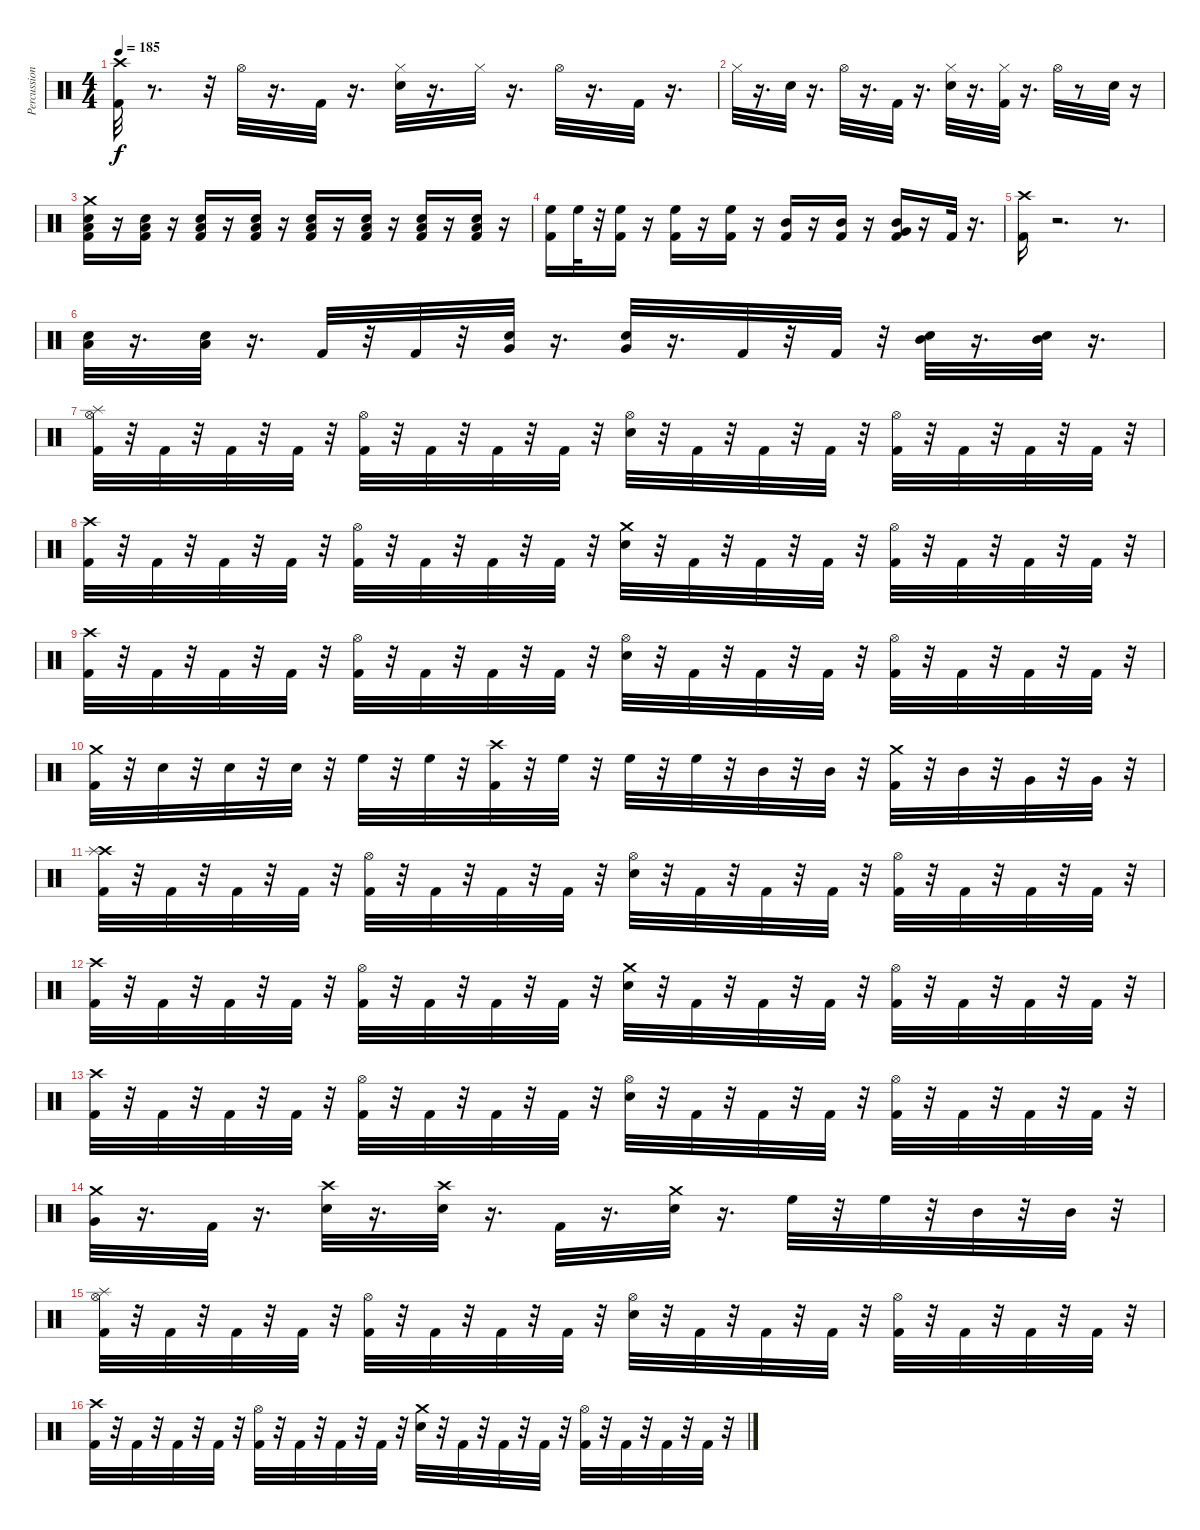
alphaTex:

\track ("Percussion" "Percussion") {instrument percussion}
\staff {score}
\articulation defaults
\ts (4 4)
\tempo 185
\clef neutral
\ks c
("Kick (hit) 2" "Crash high (hit)").32{dy f} r.8{d} r.32 "Hi-Hat (open)".32 r.16{d} "Kick (hit) 2".32 r.16{d} ("Snare (hit) 2" "Hi-Hat (closed)").32 r.16{d} "Hi-Hat (closed)".32 r.16{d} "Hi-Hat (open)".32 r.16{d} "Kick (hit) 2".32 r.16{d} |
"Hi-Hat (closed)".32 r.16{d} "Snare (hit) 2".32 r.16{d} "Hi-Hat (open)".32 r.16{d} "Kick (hit) 2".32 r.16{d} ("Snare (hit) 2" "Hi-Hat (closed)").32 r.16{d} ("Kick (hit) 2" "Hi-Hat (closed)").32 r.16{d} "Hi-Hat (open)".32 r.8 "Snare (hit) 2".32 r.16 |
("Kick (hit) 2" "Snare (hit) 2" "Low Tom (hit)" "Crash medium (hit)").16 r.16 ("Kick (hit) 2" "Snare (hit) 2" "Low Tom (hit)").16 r.16 ("Kick (hit) 2" "Snare (hit) 2" "Low Tom (hit)").16 r.16 ("Kick (hit) 2" "Snare (hit) 2" "Low Tom (hit)").16 r.16 ("Kick (hit) 2" "Snare (hit) 2" "Low Tom (hit)").16 r.16 ("Kick (hit) 2" "Snare (hit) 2" "Low Tom (hit)").16 r.16 ("Kick (hit) 2" "Snare (hit) 2" "Low Tom (hit)").16 r.16 ("Kick (hit) 2" "Snare (hit) 2" "Low Tom (hit)").16 r.16 |
("Kick (hit) 2" "High Floor Tom (hit)").16 "High Floor Tom (hit)".32 r.32 ("Kick (hit) 2" "High Floor Tom (hit)").16 r.16 ("Kick (hit) 2" "High Floor Tom (hit)").16 r.16 ("Kick (hit) 2" "High Floor Tom (hit)").16 r.16 ("Kick (hit) 2" "Mid Tom (hit)").16 r.16 ("Kick (hit) 2" "Mid Tom (hit)").16 r.16 ("Kick (hit) 2" "Very Low Tom (hit)" "Mid Tom (hit)").16 r.16 "Kick (hit) 2".32 r.16{d} |
("Kick (hit) 2" "Crash high (hit)").16 r.2{d} r.8{d} |
("Snare (hit) 2" "Low Floor Tom (hit)").32 r.16{d} ("Snare (hit) 2" "Low Floor Tom (hit)").32 r.16{d} "Kick (hit) 2".32 r.32 "Kick (hit) 2".32 r.32 ("Snare (hit) 2" "Very Low Tom (hit)").32 r.16{d} ("Snare (hit) 2" "Very Low Tom (hit)").32 r.16{d} "Kick (hit) 2".32 r.32 "Kick (hit) 2".32 r.32 ("Snare (hit) 2" "Mid Tom (hit)").32 r.16{d} ("Snare (hit) 2" "Mid Tom (hit)").32 r.16{d} |
("Kick (hit) 2" "Hi-Hat (open)" "Splash (hit)").32 r.32 "Kick (hit) 2".32 r.32 "Kick (hit) 2".32 r.32 "Kick (hit) 2".32 r.32 ("Kick (hit) 2" "Hi-Hat (open)").32 r.32 "Kick (hit) 2".32 r.32 "Kick (hit) 2".32 r.32 "Kick (hit) 2".32 r.32 ("Snare (hit) 2" "Hi-Hat (open)").32 r.32 "Kick (hit) 2".32 r.32 "Kick (hit) 2".32 r.32 "Kick (hit) 2".32 r.32 ("Kick (hit) 2" "Hi-Hat (open)").32 r.32 "Kick (hit) 2".32 r.32 "Kick (hit) 2".32 r.32 "Kick (hit) 2".32 r.32 |
("Kick (hit) 2" "Crash high (hit)").32 r.32 "Kick (hit) 2".32 r.32 "Kick (hit) 2".32 r.32 "Kick (hit) 2".32 r.32 ("Kick (hit) 2" "Hi-Hat (open)").32 r.32 "Kick (hit) 2".32 r.32 "Kick (hit) 2".32 r.32 "Kick (hit) 2".32 r.32 ("Snare (hit) 2" "Crash medium (hit)").32 r.32 "Kick (hit) 2".32 r.32 "Kick (hit) 2".32 r.32 "Kick (hit) 2".32 r.32 ("Kick (hit) 2" "Hi-Hat (open)").32 r.32 "Kick (hit) 2".32 r.32 "Kick (hit) 2".32 r.32 "Kick (hit) 2".32 r.32 |
("Kick (hit) 2" "Crash high (hit)").32 r.32 "Kick (hit) 2".32 r.32 "Kick (hit) 2".32 r.32 "Kick (hit) 2".32 r.32 ("Kick (hit) 2" "Hi-Hat (open)").32 r.32 "Kick (hit) 2".32 r.32 "Kick (hit) 2".32 r.32 "Kick (hit) 2".32 r.32 ("Snare (hit) 2" "Hi-Hat (open)").32 r.32 "Kick (hit) 2".32 r.32 "Kick (hit) 2".32 r.32 "Kick (hit) 2".32 r.32 ("Kick (hit) 2" "Hi-Hat (open)").32 r.32 "Kick (hit) 2".32 r.32 "Kick (hit) 2".32 r.32 "Kick (hit) 2".32 r.32 |
("Kick (hit) 2" "Crash medium (hit)").32 r.32 "Snare (hit) 2".32 r.32 "Snare (hit) 2".32 r.32 "Snare (hit) 2".32 r.32 "High Floor Tom (hit)".32 r.32 "High Floor Tom (hit)".32 r.32 ("Kick (hit) 2" "Crash high (hit)").32 r.32 "High Floor Tom (hit)".32 r.32 "High Floor Tom (hit)".32 r.32 "High Floor Tom (hit)".32 r.32 "Mid Tom (hit)".32 r.32 "Mid Tom (hit)".32 r.32 ("Kick (hit) 2" "Crash medium (hit)").32 r.32 "Mid Tom (hit)".32 r.32 "Very Low Tom (hit)".32 r.32 "Very Low Tom (hit)".32 r.32 |
("Kick (hit) 2" "Crash high (hit)" "Splash (hit)").32 r.32 "Kick (hit) 2".32 r.32 "Kick (hit) 2".32 r.32 "Kick (hit) 2".32 r.32 ("Kick (hit) 2" "Hi-Hat (open)").32 r.32 "Kick (hit) 2".32 r.32 "Kick (hit) 2".32 r.32 "Kick (hit) 2".32 r.32 ("Snare (hit) 2" "Hi-Hat (open)").32 r.32 "Kick (hit) 2".32 r.32 "Kick (hit) 2".32 r.32 "Kick (hit) 2".32 r.32 ("Kick (hit) 2" "Hi-Hat (open)").32 r.32 "Kick (hit) 2".32 r.32 "Kick (hit) 2".32 r.32 "Kick (hit) 2".32 r.32 |
("Kick (hit) 2" "Crash high (hit)").32 r.32 "Kick (hit) 2".32 r.32 "Kick (hit) 2".32 r.32 "Kick (hit) 2".32 r.32 ("Kick (hit) 2" "Hi-Hat (open)").32 r.32 "Kick (hit) 2".32 r.32 "Kick (hit) 2".32 r.32 "Kick (hit) 2".32 r.32 ("Snare (hit) 2" "Crash medium (hit)").32 r.32 "Kick (hit) 2".32 r.32 "Kick (hit) 2".32 r.32 "Kick (hit) 2".32 r.32 ("Kick (hit) 2" "Hi-Hat (open)").32 r.32 "Kick (hit) 2".32 r.32 "Kick (hit) 2".32 r.32 "Kick (hit) 2".32 r.32 |
("Kick (hit) 2" "Crash high (hit)").32 r.32 "Kick (hit) 2".32 r.32 "Kick (hit) 2".32 r.32 "Kick (hit) 2".32 r.32 ("Kick (hit) 2" "Hi-Hat (open)").32 r.32 "Kick (hit) 2".32 r.32 "Kick (hit) 2".32 r.32 "Kick (hit) 2".32 r.32 ("Snare (hit) 2" "Hi-Hat (open)").32 r.32 "Kick (hit) 2".32 r.32 "Kick (hit) 2".32 r.32 "Kick (hit) 2".32 r.32 ("Kick (hit) 2" "Hi-Hat (open)").32 r.32 "Kick (hit) 2".32 r.32 "Kick (hit) 2".32 r.32 "Kick (hit) 2".32 r.32 |
("Very Low Tom (hit)" "Crash medium (hit)").32 r.16{d} "Kick (hit) 2".32 r.16{d} ("Snare (hit) 2" "Crash high (hit)").32 r.16{d} ("Snare (hit) 2" "Crash high (hit)").32 r.16{d} "Kick (hit) 2".32 r.16{d} ("Snare (hit) 2" "Crash medium (hit)").32 r.16{d} "High Floor Tom (hit)".32 r.32 "High Floor Tom (hit)".32 r.32 "Mid Tom (hit)".32 r.32 "Mid Tom (hit)".32 r.32 |
("Kick (hit) 2" "Hi-Hat (open)" "Splash (hit)").32 r.32 "Kick (hit) 2".32 r.32 "Kick (hit) 2".32 r.32 "Kick (hit) 2".32 r.32 ("Kick (hit) 2" "Hi-Hat (open)").32 r.32 "Kick (hit) 2".32 r.32 "Kick (hit) 2".32 r.32 "Kick (hit) 2".32 r.32 ("Snare (hit) 2" "Hi-Hat (open)").32 r.32 "Kick (hit) 2".32 r.32 "Kick (hit) 2".32 r.32 "Kick (hit) 2".32 r.32 ("Kick (hit) 2" "Hi-Hat (open)").32 r.32 "Kick (hit) 2".32 r.32 "Kick (hit) 2".32 r.32 "Kick (hit) 2".32 r.32 |
("Kick (hit) 2" "Crash high (hit)").32 r.32 "Kick (hit) 2".32 r.32 "Kick (hit) 2".32 r.32 "Kick (hit) 2".32 r.32 ("Kick (hit) 2" "Hi-Hat (open)").32 r.32 "Kick (hit) 2".32 r.32 "Kick (hit) 2".32 r.32 "Kick (hit) 2".32 r.32 ("Snare (hit) 2" "Crash medium (hit)").32 r.32 "Kick (hit) 2".32 r.32 "Kick (hit) 2".32 r.32 "Kick (hit) 2".32 r.32 ("Kick (hit) 2" "Hi-Hat (open)").32 r.32 "Kick (hit) 2".32 r.32 "Kick (hit) 2".32 r.32 "Kick (hit) 2".32 r.32
